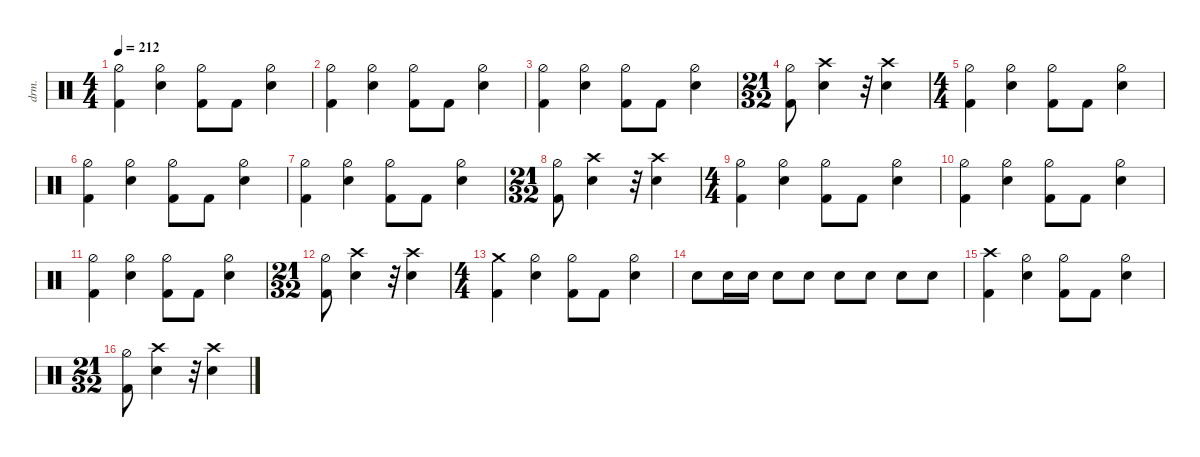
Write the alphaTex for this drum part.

\defaultSystemsLayout 4
\hideDynamics
\bracketExtendMode nobrackets
\track ("Drums" "drm.") {instrument percussion}
\staff {score}
\articulation defaults
\ts (4 4)
\beaming (8 2 2 2 2)
\tempo 212
\clef neutral
\ks c
("Kick (hit) 2" "Hi-Hat (half)").4{dy f} ("Hi-Hat (half)" "Snare (hit) 2").4 ("Hi-Hat (half)" "Kick (hit) 2").8 "Kick (hit) 2".8 ("Hi-Hat (half)" "Snare (hit) 2").4 |
("Kick (hit) 2" "Hi-Hat (half)").4 ("Hi-Hat (half)" "Snare (hit) 2").4 ("Hi-Hat (half)" "Kick (hit) 2").8 "Kick (hit) 2".8 ("Hi-Hat (half)" "Snare (hit) 2").4 |
("Kick (hit) 2" "Hi-Hat (half)").4 ("Hi-Hat (half)" "Snare (hit) 2").4 ("Hi-Hat (half)" "Kick (hit) 2").8 "Kick (hit) 2".8 ("Hi-Hat (half)" "Snare (hit) 2").4 |
\ts (21 32)
\beaming (8 2 2 2 2)
("Kick (hit) 2" "Hi-Hat (half)").8 ("Snare (hit) 2" "Crash high (hit)").4 r.32 ("Snare (hit) 2" "Crash high (hit)").4 |
\ts (4 4)
\beaming (8 2 2 2 2)
("Kick (hit) 2" "Hi-Hat (half)").4 ("Hi-Hat (half)" "Snare (hit) 2").4 ("Hi-Hat (half)" "Kick (hit) 2").8 "Kick (hit) 2".8 ("Hi-Hat (half)" "Snare (hit) 2").4 |
("Kick (hit) 2" "Hi-Hat (half)").4 ("Hi-Hat (half)" "Snare (hit) 2").4 ("Hi-Hat (half)" "Kick (hit) 2").8 "Kick (hit) 2".8 ("Hi-Hat (half)" "Snare (hit) 2").4 |
("Kick (hit) 2" "Hi-Hat (half)").4 ("Hi-Hat (half)" "Snare (hit) 2").4 ("Hi-Hat (half)" "Kick (hit) 2").8 "Kick (hit) 2".8 ("Hi-Hat (half)" "Snare (hit) 2").4 |
\ts (21 32)
\beaming (8 2 2 2 2)
("Kick (hit) 2" "Hi-Hat (half)").8 ("Snare (hit) 2" "Crash high (hit)").4 r.32 ("Snare (hit) 2" "Crash high (hit)").4 |
\ts (4 4)
\beaming (8 2 2 2 2)
("Kick (hit) 2" "Hi-Hat (half)").4 ("Hi-Hat (half)" "Snare (hit) 2").4 ("Hi-Hat (half)" "Kick (hit) 2").8 "Kick (hit) 2".8 ("Hi-Hat (half)" "Snare (hit) 2").4 |
("Kick (hit) 2" "Hi-Hat (half)").4 ("Hi-Hat (half)" "Snare (hit) 2").4 ("Hi-Hat (half)" "Kick (hit) 2").8 "Kick (hit) 2".8 ("Hi-Hat (half)" "Snare (hit) 2").4 |
("Kick (hit) 2" "Hi-Hat (half)").4 ("Hi-Hat (half)" "Snare (hit) 2").4 ("Hi-Hat (half)" "Kick (hit) 2").8 "Kick (hit) 2".8 ("Hi-Hat (half)" "Snare (hit) 2").4 |
\ts (21 32)
\beaming (8 2 2 2 2)
("Kick (hit) 2" "Hi-Hat (half)").8 ("Snare (hit) 2" "Crash high (hit)").4 r.32 ("Snare (hit) 2" "Crash high (hit)").4 |
\ts (4 4)
\beaming (8 2 2 2 2)
("Crash medium (hit)" "Kick (hit) 2").4 ("Hi-Hat (half)" "Snare (hit) 2").4 ("Hi-Hat (half)" "Kick (hit) 2").8 "Kick (hit) 2".8 ("Hi-Hat (half)" "Snare (hit) 2").4 |
"Snare (hit) 2".8 "Snare (hit) 2".16 "Snare (hit) 2".16 "Snare (hit) 2".8 "Snare (hit) 2".8 "Snare (hit) 2".8 "Snare (hit) 2".8 "Snare (hit) 2".8 "Snare (hit) 2".8 |
("Crash high (hit)" "Kick (hit) 2").4 ("Hi-Hat (half)" "Snare (hit) 2").4 ("Hi-Hat (half)" "Kick (hit) 2").8 "Kick (hit) 2".8 ("Hi-Hat (half)" "Snare (hit) 2").4 |
\ts (21 32)
\beaming (8 2 2 2 2)
("Kick (hit) 2" "Hi-Hat (half)").8 ("Snare (hit) 2" "Crash high (hit)").4 r.32 ("Snare (hit) 2" "Crash high (hit)").4
